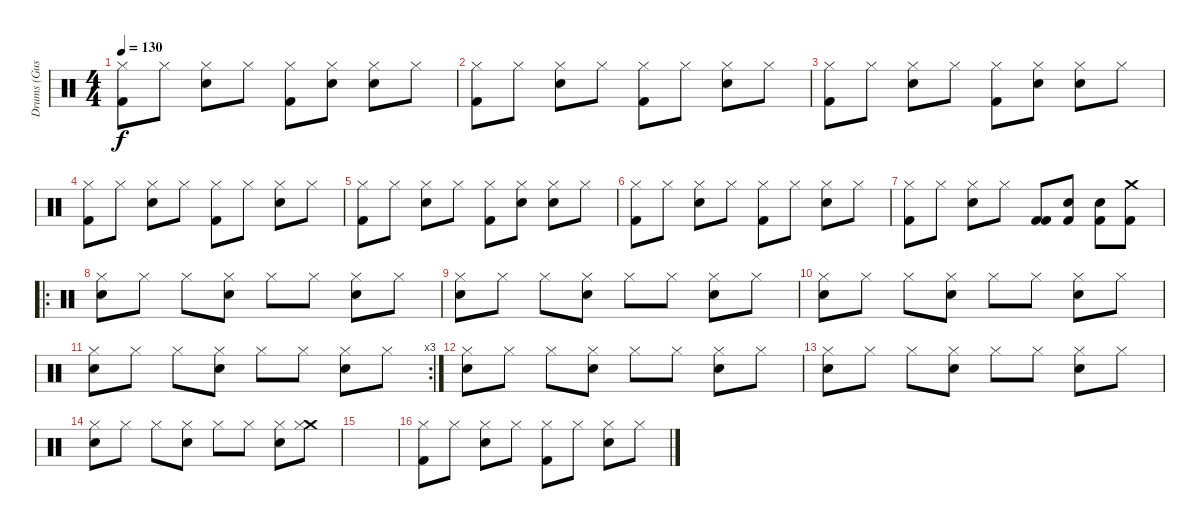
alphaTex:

\track ("Drums (Gustav) " "Drums (Gus") {instrument percussion}
\staff {score}
\articulation defaults
\ts (4 4)
\tempo 130
\clef neutral
\ks c
("Kick (hit) 2" "Hi-Hat (closed)").8{dy f} "Hi-Hat (closed)".8 ("Snare (hit) 2" "Hi-Hat (closed)").8 "Hi-Hat (closed)".8 ("Kick (hit) 2" "Hi-Hat (closed)").8 ("Snare (hit) 2" "Hi-Hat (closed)").8 ("Snare (hit) 2" "Hi-Hat (closed)").8 "Hi-Hat (closed)".8 |
("Kick (hit) 2" "Hi-Hat (closed)").8 "Hi-Hat (closed)".8 ("Snare (hit) 2" "Hi-Hat (closed)").8 "Hi-Hat (closed)".8 ("Kick (hit) 2" "Hi-Hat (closed)").8 "Hi-Hat (closed)".8 ("Snare (hit) 2" "Hi-Hat (closed)").8 "Hi-Hat (closed)".8 |
("Kick (hit) 2" "Hi-Hat (closed)").8 "Hi-Hat (closed)".8 ("Snare (hit) 2" "Hi-Hat (closed)").8 "Hi-Hat (closed)".8 ("Kick (hit) 2" "Hi-Hat (closed)").8 ("Snare (hit) 2" "Hi-Hat (closed)").8 ("Snare (hit) 2" "Hi-Hat (closed)").8 "Hi-Hat (closed)".8 |
("Kick (hit) 2" "Hi-Hat (closed)").8 "Hi-Hat (closed)".8 ("Snare (hit) 2" "Hi-Hat (closed)").8 "Hi-Hat (closed)".8 ("Kick (hit) 2" "Hi-Hat (closed)").8 "Hi-Hat (closed)".8 ("Snare (hit) 2" "Hi-Hat (closed)").8 "Hi-Hat (closed)".8 |
("Kick (hit) 2" "Hi-Hat (closed)").8 "Hi-Hat (closed)".8 ("Snare (hit) 2" "Hi-Hat (closed)").8 "Hi-Hat (closed)".8 ("Kick (hit) 2" "Hi-Hat (closed)").8 ("Snare (hit) 2" "Hi-Hat (closed)").8 ("Snare (hit) 2" "Hi-Hat (closed)").8 "Hi-Hat (closed)".8 |
("Kick (hit) 2" "Hi-Hat (closed)").8 "Hi-Hat (closed)".8 ("Snare (hit) 2" "Hi-Hat (closed)").8 "Hi-Hat (closed)".8 ("Kick (hit) 2" "Hi-Hat (closed)").8 "Hi-Hat (closed)".8 ("Snare (hit) 2" "Hi-Hat (closed)").8 "Hi-Hat (closed)".8 |
("Kick (hit) 2" "Hi-Hat (closed)").8 "Hi-Hat (closed)".8 ("Snare (hit) 2" "Hi-Hat (closed)").8 "Hi-Hat (closed)".8 ("Kick (hit) 2" "Kick (hit) 2").8 ("Snare (hit) 2" "Kick (hit) 2").8 ("Snare (hit) 2" "Kick (hit) 2").8 ("Crash medium (hit)" "Kick (hit) 2").8 |
\ro
("Snare (hit) 2" "Hi-Hat (closed)").8 "Hi-Hat (closed)".8 "Hi-Hat (closed)".8 ("Snare (hit) 2" "Hi-Hat (closed)").8 "Hi-Hat (closed)".8 "Hi-Hat (closed)".8 ("Snare (hit) 2" "Hi-Hat (closed)").8 "Hi-Hat (closed)".8 |
("Snare (hit) 2" "Hi-Hat (closed)").8 "Hi-Hat (closed)".8 "Hi-Hat (closed)".8 ("Snare (hit) 2" "Hi-Hat (closed)").8 "Hi-Hat (closed)".8 "Hi-Hat (closed)".8 ("Snare (hit) 2" "Hi-Hat (closed)").8 "Hi-Hat (closed)".8 |
("Snare (hit) 2" "Hi-Hat (closed)").8 "Hi-Hat (closed)".8 "Hi-Hat (closed)".8 ("Snare (hit) 2" "Hi-Hat (closed)").8 "Hi-Hat (closed)".8 "Hi-Hat (closed)".8 ("Snare (hit) 2" "Hi-Hat (closed)").8 "Hi-Hat (closed)".8 |
\rc 3
("Snare (hit) 2" "Hi-Hat (closed)").8 "Hi-Hat (closed)".8 "Hi-Hat (closed)".8 ("Snare (hit) 2" "Hi-Hat (closed)").8 "Hi-Hat (closed)".8 "Hi-Hat (closed)".8 ("Snare (hit) 2" "Hi-Hat (closed)").8 "Hi-Hat (closed)".8 |
("Snare (hit) 2" "Hi-Hat (closed)").8 "Hi-Hat (closed)".8 "Hi-Hat (closed)".8 ("Snare (hit) 2" "Hi-Hat (closed)").8 "Hi-Hat (closed)".8 "Hi-Hat (closed)".8 ("Snare (hit) 2" "Hi-Hat (closed)").8 "Hi-Hat (closed)".8 |
("Snare (hit) 2" "Hi-Hat (closed)").8 "Hi-Hat (closed)".8 "Hi-Hat (closed)".8 ("Snare (hit) 2" "Hi-Hat (closed)").8 "Hi-Hat (closed)".8 "Hi-Hat (closed)".8 ("Snare (hit) 2" "Hi-Hat (closed)").8 "Hi-Hat (closed)".8 |
("Snare (hit) 2" "Hi-Hat (closed)").8 "Hi-Hat (closed)".8 "Hi-Hat (closed)".8 ("Snare (hit) 2" "Hi-Hat (closed)").8 "Hi-Hat (closed)".8 "Hi-Hat (closed)".8 ("Snare (hit) 2" "Hi-Hat (closed)").8 ("Crash medium (hit)" "Hi-Hat (closed)").8 |
|
("Kick (hit) 2" "Hi-Hat (closed)").8 "Hi-Hat (closed)".8 ("Snare (hit) 2" "Hi-Hat (closed)").8 "Hi-Hat (closed)".8 ("Kick (hit) 2" "Hi-Hat (closed)").8 "Hi-Hat (closed)".8 ("Snare (hit) 2" "Hi-Hat (closed)").8 "Hi-Hat (closed)".8
